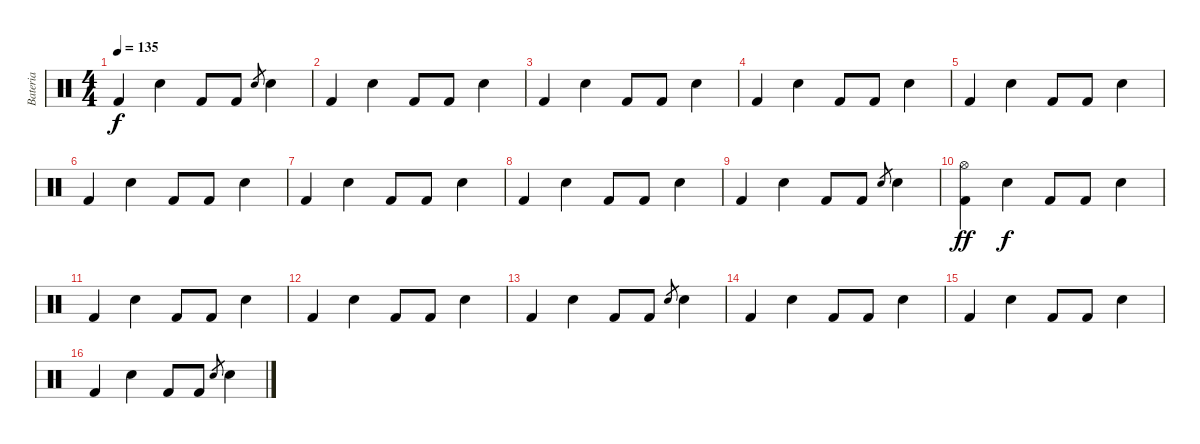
\track ("Bateria" "Bateria") {instrument percussion}
\staff {score}
\articulation defaults
\ts (4 4)
\tempo 135
\clef neutral
\ks c "Kick (hit) 2".4{dy f} "Electric Snare (hit)".4 "Kick (hit) 2".8 "Kick (hit) 2".8 "Electric Snare (hit)".8{gr} "Electric Snare (hit)".4
|
"Kick (hit) 2".4 "Electric Snare (hit)".4 "Kick (hit) 2".8 "Kick (hit) 2".8 "Electric Snare (hit)".4 |
"Kick (hit) 2".4 "Electric Snare (hit)".4 "Kick (hit) 2".8 "Kick (hit) 2".8 "Electric Snare (hit)".4 |
"Kick (hit) 2".4 "Electric Snare (hit)".4 "Kick (hit) 2".8 "Kick (hit) 2".8 "Electric Snare (hit)".4 |
"Kick (hit) 2".4 "Electric Snare (hit)".4 "Kick (hit) 2".8 "Kick (hit) 2".8 "Electric Snare (hit)".4 |
"Kick (hit) 2".4 "Electric Snare (hit)".4 "Kick (hit) 2".8 "Kick (hit) 2".8 "Electric Snare (hit)".4 |
"Kick (hit) 2".4 "Electric Snare (hit)".4 "Kick (hit) 2".8 "Kick (hit) 2".8 "Electric Snare (hit)".4 |
"Kick (hit) 2".4 "Electric Snare (hit)".4 "Kick (hit) 2".8 "Kick (hit) 2".8 "Electric Snare (hit)".4 |
"Kick (hit) 2".4 "Electric Snare (hit)".4 "Kick (hit) 2".8 "Kick (hit) 2".8 "Electric Snare (hit)".8{gr} "Electric Snare (hit)".4 |
("Hi-Hat (open)" "Kick (hit) 2").4{dy ff} "Electric Snare (hit)".4{dy f} "Kick (hit) 2".8 "Kick (hit) 2".8 "Electric Snare (hit)".4 |
"Kick (hit) 2".4 "Electric Snare (hit)".4 "Kick (hit) 2".8 "Kick (hit) 2".8 "Electric Snare (hit)".4 |
"Kick (hit) 2".4 "Electric Snare (hit)".4 "Kick (hit) 2".8 "Kick (hit) 2".8 "Electric Snare (hit)".4 |
"Kick (hit) 2".4 "Electric Snare (hit)".4 "Kick (hit) 2".8 "Kick (hit) 2".8 "Electric Snare (hit)".8{gr} "Electric Snare (hit)".4 |
"Kick (hit) 2".4 "Electric Snare (hit)".4 "Kick (hit) 2".8 "Kick (hit) 2".8 "Electric Snare (hit)".4 |
"Kick (hit) 2".4 "Electric Snare (hit)".4 "Kick (hit) 2".8 "Kick (hit) 2".8 "Electric Snare (hit)".4 |
"Kick (hit) 2".4 "Electric Snare (hit)".4 "Kick (hit) 2".8 "Kick (hit) 2".8 "Electric Snare (hit)".8{gr} "Electric Snare (hit)".4
